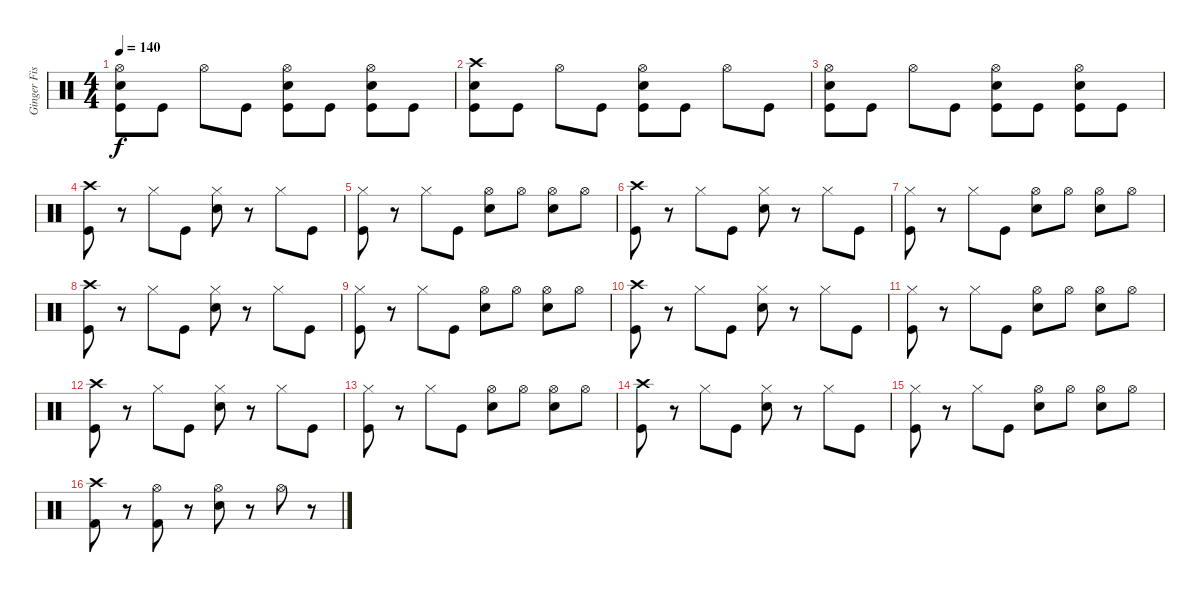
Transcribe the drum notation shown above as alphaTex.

\track ("Ginger Fish" "Ginger Fis") {instrument percussion}
\staff {score}
\articulation defaults
\ts (4 4)
\tempo 140
\clef neutral
\ks c
("Hi-Hat (open)" "Electric Snare (hit)" "Kick (hit)").8{dy f} "Kick (hit)".8 "Hi-Hat (open)".8 "Kick (hit)".8 ("Hi-Hat (open)" "Electric Snare (hit)" "Kick (hit)").8 "Kick (hit)".8 ("Hi-Hat (open)" "Electric Snare (hit)" "Kick (hit)").8 "Kick (hit)".8 |
("Crash high (hit)" "Electric Snare (hit)" "Kick (hit)").8 "Kick (hit)".8 "Hi-Hat (open)".8 "Kick (hit)".8 ("Hi-Hat (open)" "Electric Snare (hit)" "Kick (hit)").8 "Kick (hit)".8 "Hi-Hat (open)".8 "Kick (hit)".8 |
("Hi-Hat (open)" "Electric Snare (hit)" "Kick (hit)").8 "Kick (hit)".8 "Hi-Hat (open)".8 "Kick (hit)".8 ("Hi-Hat (open)" "Electric Snare (hit)" "Kick (hit)").8 "Kick (hit)".8 ("Hi-Hat (open)" "Electric Snare (hit)" "Kick (hit)").8 "Kick (hit)".8 |
("Crash high (hit)" "Kick (hit)").8 r.8 "Hi-Hat (closed)".8 "Kick (hit)".8 ("Hi-Hat (closed)" "Electric Snare (hit)").8 r.8 "Hi-Hat (closed)".8 "Kick (hit)".8 |
("Hi-Hat (closed)" "Kick (hit)").8 r.8 "Hi-Hat (closed)".8 "Kick (hit)".8 ("Hi-Hat (open)" "Electric Snare (hit)").8 "Hi-Hat (open)".8 ("Hi-Hat (open)" "Electric Snare (hit)").8 "Hi-Hat (open)".8 |
("Crash high (hit)" "Kick (hit)").8 r.8 "Hi-Hat (closed)".8 "Kick (hit)".8 ("Hi-Hat (closed)" "Electric Snare (hit)").8 r.8 "Hi-Hat (closed)".8 "Kick (hit)".8 |
("Hi-Hat (closed)" "Kick (hit)").8 r.8 "Hi-Hat (closed)".8 "Kick (hit)".8 ("Hi-Hat (open)" "Electric Snare (hit)").8 "Hi-Hat (open)".8 ("Hi-Hat (open)" "Electric Snare (hit)").8 "Hi-Hat (open)".8 |
("Crash high (hit)" "Kick (hit)").8 r.8 "Hi-Hat (closed)".8 "Kick (hit)".8 ("Hi-Hat (closed)" "Electric Snare (hit)").8 r.8 "Hi-Hat (closed)".8 "Kick (hit)".8 |
("Hi-Hat (closed)" "Kick (hit)").8 r.8 "Hi-Hat (closed)".8 "Kick (hit)".8 ("Hi-Hat (open)" "Electric Snare (hit)").8 "Hi-Hat (open)".8 ("Hi-Hat (open)" "Electric Snare (hit)").8 "Hi-Hat (open)".8 |
("Crash high (hit)" "Kick (hit)").8 r.8 "Hi-Hat (closed)".8 "Kick (hit)".8 ("Hi-Hat (closed)" "Electric Snare (hit)").8 r.8 "Hi-Hat (closed)".8 "Kick (hit)".8 |
("Hi-Hat (closed)" "Kick (hit)").8 r.8 "Hi-Hat (closed)".8 "Kick (hit)".8 ("Hi-Hat (open)" "Electric Snare (hit)").8 "Hi-Hat (open)".8 ("Hi-Hat (open)" "Electric Snare (hit)").8 "Hi-Hat (open)".8 |
("Crash high (hit)" "Kick (hit)").8 r.8 "Hi-Hat (closed)".8 "Kick (hit)".8 ("Hi-Hat (closed)" "Electric Snare (hit)").8 r.8 "Hi-Hat (closed)".8 "Kick (hit)".8 |
("Hi-Hat (closed)" "Kick (hit)").8 r.8 "Hi-Hat (closed)".8 "Kick (hit)".8 ("Hi-Hat (open)" "Electric Snare (hit)").8 "Hi-Hat (open)".8 ("Hi-Hat (open)" "Electric Snare (hit)").8 "Hi-Hat (open)".8 |
("Crash high (hit)" "Kick (hit)").8 r.8 "Hi-Hat (closed)".8 "Kick (hit)".8 ("Hi-Hat (closed)" "Electric Snare (hit)").8 r.8 "Hi-Hat (closed)".8 "Kick (hit)".8 |
("Hi-Hat (closed)" "Kick (hit)").8 r.8 "Hi-Hat (closed)".8 "Kick (hit)".8 ("Hi-Hat (open)" "Electric Snare (hit)").8 "Hi-Hat (open)".8 ("Hi-Hat (open)" "Electric Snare (hit)").8 "Hi-Hat (open)".8 |
("Crash high (hit)" "Kick (hit) 2").8 r.8 ("Hi-Hat (open)" "Kick (hit) 2").8 r.8 ("Hi-Hat (open)" "Electric Snare (hit)").8 r.8 "Hi-Hat (open)".8 r.8
